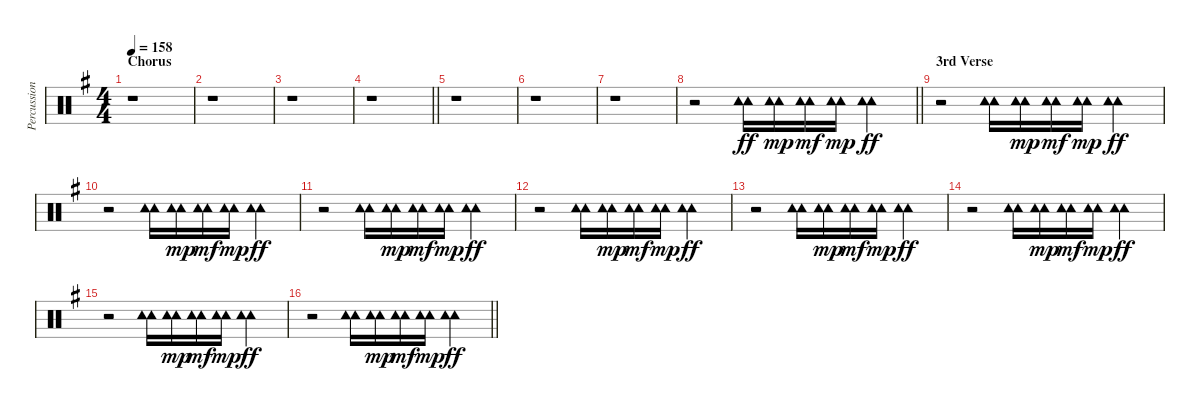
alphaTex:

\track ("Percussion" "Percussion") {instrument percussion}
\staff {score}
\articulation defaults
\ts (4 4)
\section ("" "Chorus")
\tempo 158
\clef neutral
\ks g
r.1{dy ff} |
r.1 |
r.1 |
\barLineRight lightlight
r.1 |
\section ("" "")
r.1 |
r.1 |
r.1 |
\barLineRight lightlight
r.2 ("Tambourine (hit)" "Tambourine (hit)").16 ("Tambourine (hit)" "Tambourine (hit)").16{dy mp} ("Tambourine (hit)" "Tambourine (hit)").16{dy mf} ("Tambourine (hit)" "Tambourine (hit)").16{dy mp} ("Tambourine (hit)" "Tambourine (hit)").4{dy ff} |
\section ("" "3rd Verse")
r.2 ("Tambourine (hit)" "Tambourine (hit)").16 ("Tambourine (hit)" "Tambourine (hit)").16{dy mp} ("Tambourine (hit)" "Tambourine (hit)").16{dy mf} ("Tambourine (hit)" "Tambourine (hit)").16{dy mp} ("Tambourine (hit)" "Tambourine (hit)").4{dy ff} |
r.2 ("Tambourine (hit)" "Tambourine (hit)").16 ("Tambourine (hit)" "Tambourine (hit)").16{dy mp} ("Tambourine (hit)" "Tambourine (hit)").16{dy mf} ("Tambourine (hit)" "Tambourine (hit)").16{dy mp} ("Tambourine (hit)" "Tambourine (hit)").4{dy ff} |
r.2 ("Tambourine (hit)" "Tambourine (hit)").16 ("Tambourine (hit)" "Tambourine (hit)").16{dy mp} ("Tambourine (hit)" "Tambourine (hit)").16{dy mf} ("Tambourine (hit)" "Tambourine (hit)").16{dy mp} ("Tambourine (hit)" "Tambourine (hit)").4{dy ff} |
r.2 ("Tambourine (hit)" "Tambourine (hit)").16 ("Tambourine (hit)" "Tambourine (hit)").16{dy mp} ("Tambourine (hit)" "Tambourine (hit)").16{dy mf} ("Tambourine (hit)" "Tambourine (hit)").16{dy mp} ("Tambourine (hit)" "Tambourine (hit)").4{dy ff} |
r.2 ("Tambourine (hit)" "Tambourine (hit)").16 ("Tambourine (hit)" "Tambourine (hit)").16{dy mp} ("Tambourine (hit)" "Tambourine (hit)").16{dy mf} ("Tambourine (hit)" "Tambourine (hit)").16{dy mp} ("Tambourine (hit)" "Tambourine (hit)").4{dy ff} |
r.2 ("Tambourine (hit)" "Tambourine (hit)").16 ("Tambourine (hit)" "Tambourine (hit)").16{dy mp} ("Tambourine (hit)" "Tambourine (hit)").16{dy mf} ("Tambourine (hit)" "Tambourine (hit)").16{dy mp} ("Tambourine (hit)" "Tambourine (hit)").4{dy ff} |
r.2 ("Tambourine (hit)" "Tambourine (hit)").16 ("Tambourine (hit)" "Tambourine (hit)").16{dy mp} ("Tambourine (hit)" "Tambourine (hit)").16{dy mf} ("Tambourine (hit)" "Tambourine (hit)").16{dy mp} ("Tambourine (hit)" "Tambourine (hit)").4{dy ff} |
\barLineRight lightlight
r.2 ("Tambourine (hit)" "Tambourine (hit)").16 ("Tambourine (hit)" "Tambourine (hit)").16{dy mp} ("Tambourine (hit)" "Tambourine (hit)").16{dy mf} ("Tambourine (hit)" "Tambourine (hit)").16{dy mp} ("Tambourine (hit)" "Tambourine (hit)").4{dy ff}
